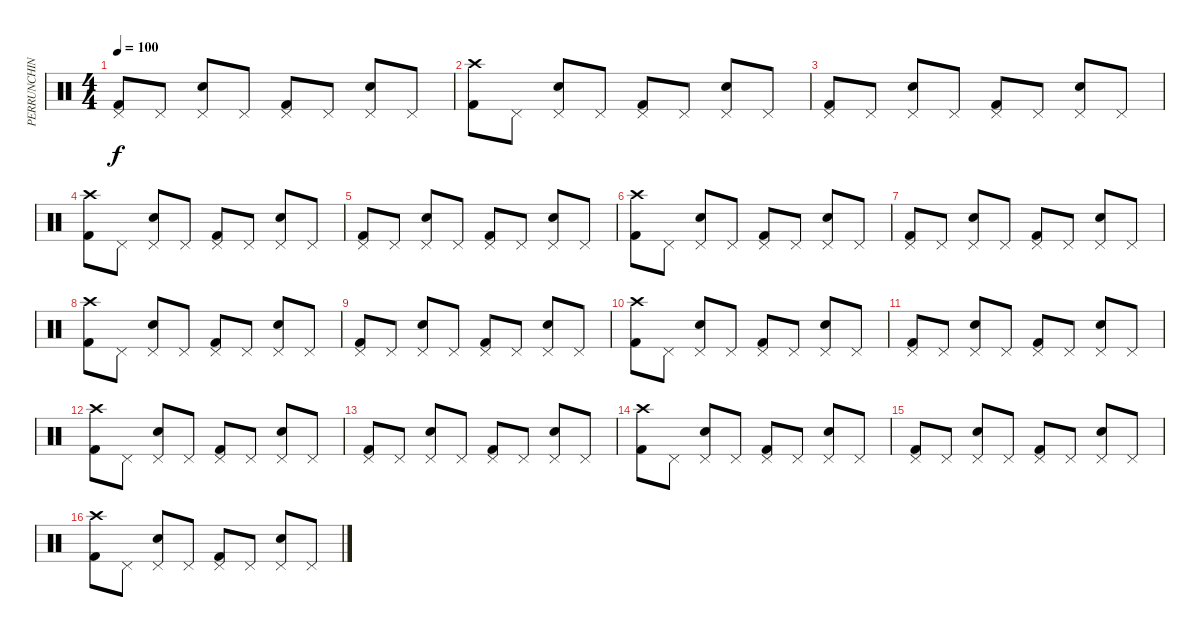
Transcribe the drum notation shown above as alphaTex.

\track ("PERRUNCHIN" "PERRUNCHIN") {instrument percussion}
\staff {score}
\articulation defaults
\ts (4 4)
\tempo 100
\clef neutral
\ks c
("Pedal Hi-Hat (hit)" "Kick (hit) 2").8{dy f} "Pedal Hi-Hat (hit)".8 ("Pedal Hi-Hat (hit)" "Electric Snare (hit)").8 "Pedal Hi-Hat (hit)".8 ("Pedal Hi-Hat (hit)" "Kick (hit) 2").8 "Pedal Hi-Hat (hit)".8 ("Pedal Hi-Hat (hit)" "Electric Snare (hit)").8 "Pedal Hi-Hat (hit)".8 |
("Crash high (hit)" "Kick (hit) 2").8 "Pedal Hi-Hat (hit)".8 ("Pedal Hi-Hat (hit)" "Electric Snare (hit)").8 "Pedal Hi-Hat (hit)".8 ("Pedal Hi-Hat (hit)" "Kick (hit) 2").8 "Pedal Hi-Hat (hit)".8 ("Pedal Hi-Hat (hit)" "Electric Snare (hit)").8 "Pedal Hi-Hat (hit)".8 |
("Pedal Hi-Hat (hit)" "Kick (hit) 2").8 "Pedal Hi-Hat (hit)".8 ("Pedal Hi-Hat (hit)" "Electric Snare (hit)").8 "Pedal Hi-Hat (hit)".8 ("Pedal Hi-Hat (hit)" "Kick (hit) 2").8 "Pedal Hi-Hat (hit)".8 ("Pedal Hi-Hat (hit)" "Electric Snare (hit)").8 "Pedal Hi-Hat (hit)".8 |
("Crash high (hit)" "Kick (hit) 2").8 "Pedal Hi-Hat (hit)".8 ("Pedal Hi-Hat (hit)" "Electric Snare (hit)").8 "Pedal Hi-Hat (hit)".8 ("Pedal Hi-Hat (hit)" "Kick (hit) 2").8 "Pedal Hi-Hat (hit)".8 ("Pedal Hi-Hat (hit)" "Electric Snare (hit)").8 "Pedal Hi-Hat (hit)".8 |
("Pedal Hi-Hat (hit)" "Kick (hit) 2").8 "Pedal Hi-Hat (hit)".8 ("Pedal Hi-Hat (hit)" "Electric Snare (hit)").8 "Pedal Hi-Hat (hit)".8 ("Pedal Hi-Hat (hit)" "Kick (hit) 2").8 "Pedal Hi-Hat (hit)".8 ("Pedal Hi-Hat (hit)" "Electric Snare (hit)").8 "Pedal Hi-Hat (hit)".8 |
("Crash high (hit)" "Kick (hit) 2").8 "Pedal Hi-Hat (hit)".8 ("Pedal Hi-Hat (hit)" "Electric Snare (hit)").8 "Pedal Hi-Hat (hit)".8 ("Pedal Hi-Hat (hit)" "Kick (hit) 2").8 "Pedal Hi-Hat (hit)".8 ("Pedal Hi-Hat (hit)" "Electric Snare (hit)").8 "Pedal Hi-Hat (hit)".8 |
("Pedal Hi-Hat (hit)" "Kick (hit) 2").8 "Pedal Hi-Hat (hit)".8 ("Pedal Hi-Hat (hit)" "Electric Snare (hit)").8 "Pedal Hi-Hat (hit)".8 ("Pedal Hi-Hat (hit)" "Kick (hit) 2").8 "Pedal Hi-Hat (hit)".8 ("Pedal Hi-Hat (hit)" "Electric Snare (hit)").8 "Pedal Hi-Hat (hit)".8 |
("Crash high (hit)" "Kick (hit) 2").8 "Pedal Hi-Hat (hit)".8 ("Pedal Hi-Hat (hit)" "Electric Snare (hit)").8 "Pedal Hi-Hat (hit)".8 ("Pedal Hi-Hat (hit)" "Kick (hit) 2").8 "Pedal Hi-Hat (hit)".8 ("Pedal Hi-Hat (hit)" "Electric Snare (hit)").8 "Pedal Hi-Hat (hit)".8 |
("Pedal Hi-Hat (hit)" "Kick (hit) 2").8 "Pedal Hi-Hat (hit)".8 ("Pedal Hi-Hat (hit)" "Electric Snare (hit)").8 "Pedal Hi-Hat (hit)".8 ("Pedal Hi-Hat (hit)" "Kick (hit) 2").8 "Pedal Hi-Hat (hit)".8 ("Pedal Hi-Hat (hit)" "Electric Snare (hit)").8 "Pedal Hi-Hat (hit)".8 |
("Crash high (hit)" "Kick (hit) 2").8 "Pedal Hi-Hat (hit)".8 ("Pedal Hi-Hat (hit)" "Electric Snare (hit)").8 "Pedal Hi-Hat (hit)".8 ("Pedal Hi-Hat (hit)" "Kick (hit) 2").8 "Pedal Hi-Hat (hit)".8 ("Pedal Hi-Hat (hit)" "Electric Snare (hit)").8 "Pedal Hi-Hat (hit)".8 |
("Pedal Hi-Hat (hit)" "Kick (hit) 2").8 "Pedal Hi-Hat (hit)".8 ("Pedal Hi-Hat (hit)" "Electric Snare (hit)").8 "Pedal Hi-Hat (hit)".8 ("Pedal Hi-Hat (hit)" "Kick (hit) 2").8 "Pedal Hi-Hat (hit)".8 ("Pedal Hi-Hat (hit)" "Electric Snare (hit)").8 "Pedal Hi-Hat (hit)".8 |
("Crash high (hit)" "Kick (hit) 2").8 "Pedal Hi-Hat (hit)".8 ("Pedal Hi-Hat (hit)" "Electric Snare (hit)").8 "Pedal Hi-Hat (hit)".8 ("Pedal Hi-Hat (hit)" "Kick (hit) 2").8 "Pedal Hi-Hat (hit)".8 ("Pedal Hi-Hat (hit)" "Electric Snare (hit)").8 "Pedal Hi-Hat (hit)".8 |
("Pedal Hi-Hat (hit)" "Kick (hit) 2").8 "Pedal Hi-Hat (hit)".8 ("Pedal Hi-Hat (hit)" "Electric Snare (hit)").8 "Pedal Hi-Hat (hit)".8 ("Pedal Hi-Hat (hit)" "Kick (hit) 2").8 "Pedal Hi-Hat (hit)".8 ("Pedal Hi-Hat (hit)" "Electric Snare (hit)").8 "Pedal Hi-Hat (hit)".8 |
("Crash high (hit)" "Kick (hit) 2").8 "Pedal Hi-Hat (hit)".8 ("Pedal Hi-Hat (hit)" "Electric Snare (hit)").8 "Pedal Hi-Hat (hit)".8 ("Pedal Hi-Hat (hit)" "Kick (hit) 2").8 "Pedal Hi-Hat (hit)".8 ("Pedal Hi-Hat (hit)" "Electric Snare (hit)").8 "Pedal Hi-Hat (hit)".8 |
("Pedal Hi-Hat (hit)" "Kick (hit) 2").8 "Pedal Hi-Hat (hit)".8 ("Pedal Hi-Hat (hit)" "Electric Snare (hit)").8 "Pedal Hi-Hat (hit)".8 ("Pedal Hi-Hat (hit)" "Kick (hit) 2").8 "Pedal Hi-Hat (hit)".8 ("Pedal Hi-Hat (hit)" "Electric Snare (hit)").8 "Pedal Hi-Hat (hit)".8 |
("Crash high (hit)" "Kick (hit) 2").8 "Pedal Hi-Hat (hit)".8 ("Pedal Hi-Hat (hit)" "Electric Snare (hit)").8 "Pedal Hi-Hat (hit)".8 ("Pedal Hi-Hat (hit)" "Kick (hit) 2").8 "Pedal Hi-Hat (hit)".8 ("Pedal Hi-Hat (hit)" "Electric Snare (hit)").8 "Pedal Hi-Hat (hit)".8
